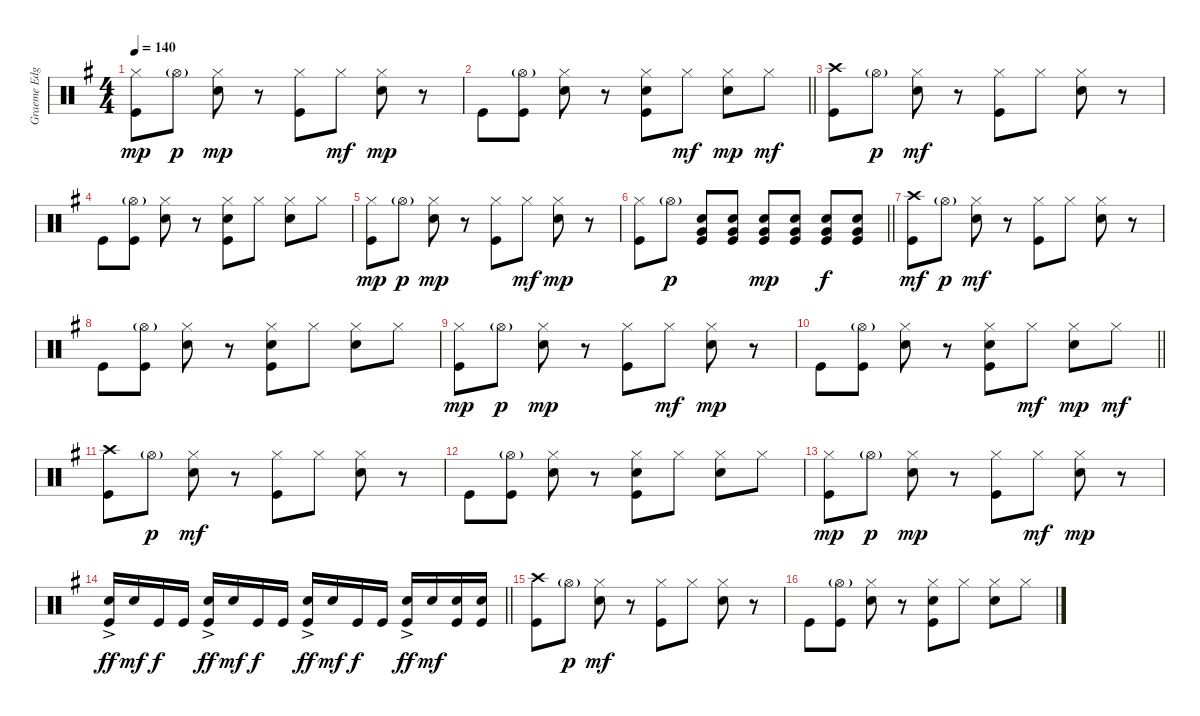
\track ("Graeme Edge" "Graeme Edg") {instrument percussion}
\staff {score}
\articulation defaults
\ts (4 4)
\tempo 140
\clef neutral
\ks g
("Hi-Hat (closed)" "Kick (hit)").8{dy mp} "Hi-Hat (open)"{g}.8{dy p} ("Hi-Hat (closed)" "Snare (hit) 2").8{dy mp} r.8 ("Hi-Hat (closed)" "Kick (hit)").8 "Hi-Hat (closed)".8{dy mf} ("Hi-Hat (closed)" "Snare (hit) 2").8{dy mp} r.8 |
\barLineRight lightlight "Kick (hit)".8
("Hi-Hat (open)"{g} "Kick (hit)").8 ("Hi-Hat (closed)" "Snare (hit) 2").8 r.8 ("Hi-Hat (closed)" "Hand Clap (hit)" "Kick (hit)").8 "Hi-Hat (closed)".8{dy mf} ("Hi-Hat (closed)" "Snare (hit) 2").8{dy mp} "Hi-Hat (closed)".8{dy mf} |
\section ("" "")
("Crash high (hit)" "Kick (hit)").8 "Hi-Hat (open)"{g}.8{dy p} ("Hi-Hat (closed)" "Snare (hit) 2").8{dy mf} r.8 ("Hi-Hat (closed)" "Kick (hit)").8 "Hi-Hat (closed)".8 ("Hi-Hat (closed)" "Snare (hit) 2").8 r.8 |
"Kick (hit)".8 ("Hi-Hat (open)"{g} "Kick (hit)").8 ("Hi-Hat (closed)" "Snare (hit) 2").8 r.8 ("Hi-Hat (closed)" "Hand Clap (hit)" "Kick (hit)").8 "Hi-Hat (closed)".8 ("Hi-Hat (closed)" "Snare (hit) 2").8 "Hi-Hat (closed)".8 |
("Hi-Hat (closed)" "Kick (hit)").8{dy mp} "Hi-Hat (open)"{g}.8{dy p} ("Hi-Hat (closed)" "Snare (hit) 2").8{dy mp} r.8 ("Hi-Hat (closed)" "Kick (hit)").8 "Hi-Hat (closed)".8{dy mf} ("Hi-Hat (closed)" "Snare (hit) 2").8{dy mp} r.8 |
\barLineRight lightlight
("Hi-Hat (closed)" "Kick (hit)").8 "Hi-Hat (open)"{g}.8{dy p} ("Snare (hit) 2" "Very Low Tom (hit)" "Kick (hit)").8 ("Snare (hit) 2" "Very Low Tom (hit)" "Kick (hit)").8 ("Snare (hit) 2" "Very Low Tom (hit)" "Kick (hit)").8{dy mp} ("Snare (hit) 2" "Very Low Tom (hit)" "Kick (hit)").8 ("Snare (hit) 2" "Very Low Tom (hit)" "Kick (hit)").8{dy f} ("Snare (hit) 2" "Very Low Tom (hit)" "Kick (hit)").8 |
\section ("" "")
("Crash high (hit)" "Kick (hit)").8{dy mf} "Hi-Hat (open)"{g}.8{dy p} ("Hi-Hat (closed)" "Snare (hit) 2").8{dy mf} r.8 ("Hi-Hat (closed)" "Kick (hit)").8 "Hi-Hat (closed)".8 ("Hi-Hat (closed)" "Snare (hit) 2").8 r.8 |
"Kick (hit)".8 ("Hi-Hat (open)"{g} "Kick (hit)").8 ("Hi-Hat (closed)" "Snare (hit) 2").8 r.8 ("Hi-Hat (closed)" "Hand Clap (hit)" "Kick (hit)").8 "Hi-Hat (closed)".8 ("Hi-Hat (closed)" "Snare (hit) 2").8 "Hi-Hat (closed)".8 |
("Hi-Hat (closed)" "Kick (hit)").8{dy mp} "Hi-Hat (open)"{g}.8{dy p} ("Hi-Hat (closed)" "Snare (hit) 2").8{dy mp} r.8 ("Hi-Hat (closed)" "Kick (hit)").8 "Hi-Hat (closed)".8{dy mf} ("Hi-Hat (closed)" "Snare (hit) 2").8{dy mp} r.8 |
\barLineRight lightlight "Kick (hit)".8
("Hi-Hat (open)"{g} "Kick (hit)").8 ("Hi-Hat (closed)" "Snare (hit) 2").8 r.8 ("Hi-Hat (closed)" "Hand Clap (hit)" "Kick (hit)").8 "Hi-Hat (closed)".8{dy mf} ("Hi-Hat (closed)" "Snare (hit) 2").8{dy mp} "Hi-Hat (closed)".8{dy mf} |
\section ("" "")
("Crash high (hit)" "Kick (hit)").8 "Hi-Hat (open)"{g}.8{dy p} ("Hi-Hat (closed)" "Snare (hit) 2").8{dy mf} r.8 ("Hi-Hat (closed)" "Kick (hit)").8 "Hi-Hat (closed)".8 ("Hi-Hat (closed)" "Snare (hit) 2").8 r.8 |
"Kick (hit)".8 ("Hi-Hat (open)"{g} "Kick (hit)").8 ("Hi-Hat (closed)" "Snare (hit) 2").8 r.8 ("Hi-Hat (closed)" "Hand Clap (hit)" "Kick (hit)").8 "Hi-Hat (closed)".8 ("Hi-Hat (closed)" "Snare (hit) 2").8 "Hi-Hat (closed)".8 |
("Hi-Hat (closed)" "Kick (hit)").8{dy mp} "Hi-Hat (open)"{g}.8{dy p} ("Hi-Hat (closed)" "Snare (hit) 2").8{dy mp} r.8 ("Hi-Hat (closed)" "Kick (hit)").8 "Hi-Hat (closed)".8{dy mf} ("Hi-Hat (closed)" "Snare (hit) 2").8{dy mp} r.8 |
\barLineRight lightlight
("Snare (hit) 2"{ac} "Kick (hit)").16{dy ff} "Snare (hit) 2".16{dy mf} "Kick (hit)".16{dy f} "Kick (hit)".16 ("Snare (hit) 2"{ac} "Kick (hit)").16{dy ff} "Snare (hit) 2".16{dy mf} "Kick (hit)".16{dy f} "Kick (hit)".16 ("Snare (hit) 2"{ac} "Kick (hit)").16{dy ff} "Snare (hit) 2".16{dy mf} "Kick (hit)".16{dy f} "Kick (hit)".16 ("Snare (hit) 2"{ac} "Kick (hit)").16{dy ff} "Snare (hit) 2".16{dy mf} ("Snare (hit) 2" "Kick (hit)").16 ("Snare (hit) 2" "Kick (hit)").16 |
\section ("" "")
("Crash high (hit)" "Kick (hit)").8 "Hi-Hat (open)"{g}.8{dy p} ("Hi-Hat (closed)" "Snare (hit) 2").8{dy mf} r.8 ("Hi-Hat (closed)" "Kick (hit)").8 "Hi-Hat (closed)".8 ("Hi-Hat (closed)" "Snare (hit) 2").8 r.8 |
"Kick (hit)".8 ("Hi-Hat (open)"{g} "Kick (hit)").8 ("Hi-Hat (closed)" "Snare (hit) 2").8 r.8 ("Hi-Hat (closed)" "Hand Clap (hit)" "Kick (hit)").8 "Hi-Hat (closed)".8 ("Hi-Hat (closed)" "Snare (hit) 2").8 "Hi-Hat (closed)".8
